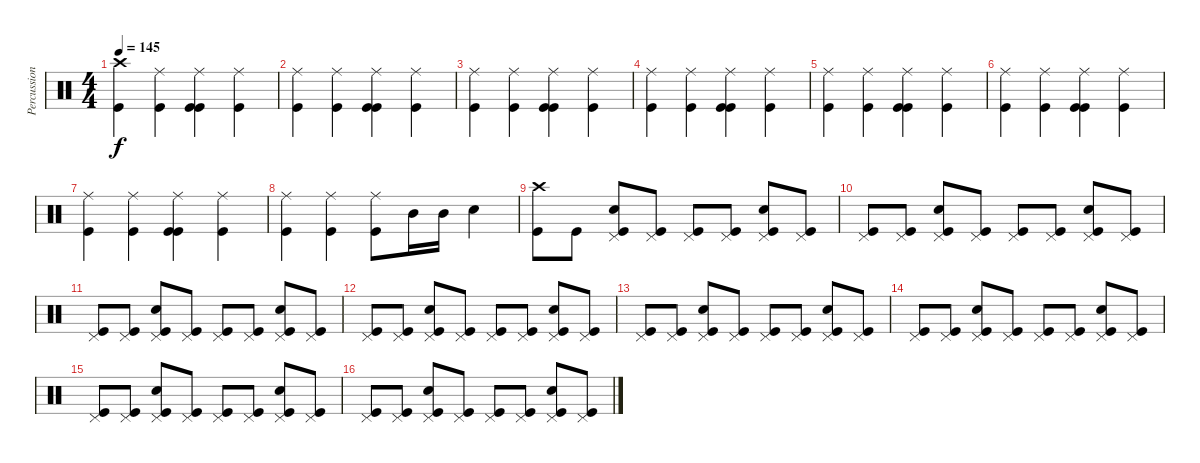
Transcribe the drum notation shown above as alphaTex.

\track ("Percussion" "Percussion") {instrument percussion}
\staff {score}
\articulation defaults
\ts (4 4)
\tempo 145
\clef neutral
\ks c
("Crash high (hit)" "Kick (hit)").4{dy f} ("Ride (middle)" "Kick (hit)").4 ("Ride (middle)" "Kick (hit)" "Kick (hit)").4 ("Ride (middle)" "Kick (hit)").4 |
("Ride (middle)" "Kick (hit)").4 ("Ride (middle)" "Kick (hit)").4 ("Ride (middle)" "Kick (hit)" "Kick (hit)").4 ("Ride (middle)" "Kick (hit)").4 |
("Ride (middle)" "Kick (hit)").4 ("Ride (middle)" "Kick (hit)").4 ("Ride (middle)" "Kick (hit)" "Kick (hit)").4 ("Ride (middle)" "Kick (hit)").4 |
("Ride (middle)" "Kick (hit)").4 ("Ride (middle)" "Kick (hit)").4 ("Ride (middle)" "Kick (hit)" "Kick (hit)").4 ("Ride (middle)" "Kick (hit)").4 |
("Ride (middle)" "Kick (hit)").4 ("Ride (middle)" "Kick (hit)").4 ("Ride (middle)" "Kick (hit)" "Kick (hit)").4 ("Ride (middle)" "Kick (hit)").4 |
("Ride (middle)" "Kick (hit)").4 ("Ride (middle)" "Kick (hit)").4 ("Ride (middle)" "Kick (hit)" "Kick (hit)").4 ("Ride (middle)" "Kick (hit)").4 |
("Ride (middle)" "Kick (hit)").4 ("Ride (middle)" "Kick (hit)").4 ("Ride (middle)" "Kick (hit)" "Kick (hit)").4 ("Ride (middle)" "Kick (hit)").4 |
("Ride (middle)" "Kick (hit)").4 ("Ride (middle)" "Kick (hit)").4 ("Ride (middle)" "Kick (hit)").8 "Mid Tom (hit)".16 "Mid Tom (hit)".16 "Snare (hit) 2".4 |
("Crash high (hit)" "Kick (hit)").8 "Kick (hit)".8 ("Pedal Hi-Hat (hit)" "Snare (hit) 2" "Kick (hit)").8 ("Pedal Hi-Hat (hit)" "Kick (hit)").8 ("Pedal Hi-Hat (hit)" "Kick (hit)").8 ("Pedal Hi-Hat (hit)" "Kick (hit)").8 ("Pedal Hi-Hat (hit)" "Snare (hit) 2" "Kick (hit)").8 ("Pedal Hi-Hat (hit)" "Kick (hit)").8 |
("Pedal Hi-Hat (hit)" "Kick (hit)").8 ("Pedal Hi-Hat (hit)" "Kick (hit)").8 ("Pedal Hi-Hat (hit)" "Snare (hit) 2" "Kick (hit)").8 ("Pedal Hi-Hat (hit)" "Kick (hit)").8 ("Pedal Hi-Hat (hit)" "Kick (hit)").8 ("Pedal Hi-Hat (hit)" "Kick (hit)").8 ("Pedal Hi-Hat (hit)" "Snare (hit) 2" "Kick (hit)").8 ("Pedal Hi-Hat (hit)" "Kick (hit)").8 |
("Pedal Hi-Hat (hit)" "Kick (hit)").8 ("Pedal Hi-Hat (hit)" "Kick (hit)").8 ("Pedal Hi-Hat (hit)" "Snare (hit) 2" "Kick (hit)").8 ("Pedal Hi-Hat (hit)" "Kick (hit)").8 ("Pedal Hi-Hat (hit)" "Kick (hit)").8 ("Pedal Hi-Hat (hit)" "Kick (hit)").8 ("Pedal Hi-Hat (hit)" "Snare (hit) 2" "Kick (hit)").8 ("Pedal Hi-Hat (hit)" "Kick (hit)").8 |
("Pedal Hi-Hat (hit)" "Kick (hit)").8 ("Pedal Hi-Hat (hit)" "Kick (hit)").8 ("Pedal Hi-Hat (hit)" "Snare (hit) 2" "Kick (hit)").8 ("Pedal Hi-Hat (hit)" "Kick (hit)").8 ("Pedal Hi-Hat (hit)" "Kick (hit)").8 ("Pedal Hi-Hat (hit)" "Kick (hit)").8 ("Pedal Hi-Hat (hit)" "Snare (hit) 2" "Kick (hit)").8 ("Pedal Hi-Hat (hit)" "Kick (hit)").8 |
("Pedal Hi-Hat (hit)" "Kick (hit)").8 ("Pedal Hi-Hat (hit)" "Kick (hit)").8 ("Pedal Hi-Hat (hit)" "Snare (hit) 2" "Kick (hit)").8 ("Pedal Hi-Hat (hit)" "Kick (hit)").8 ("Pedal Hi-Hat (hit)" "Kick (hit)").8 ("Pedal Hi-Hat (hit)" "Kick (hit)").8 ("Pedal Hi-Hat (hit)" "Snare (hit) 2" "Kick (hit)").8 ("Pedal Hi-Hat (hit)" "Kick (hit)").8 |
("Pedal Hi-Hat (hit)" "Kick (hit)").8 ("Pedal Hi-Hat (hit)" "Kick (hit)").8 ("Pedal Hi-Hat (hit)" "Snare (hit) 2" "Kick (hit)").8 ("Pedal Hi-Hat (hit)" "Kick (hit)").8 ("Pedal Hi-Hat (hit)" "Kick (hit)").8 ("Pedal Hi-Hat (hit)" "Kick (hit)").8 ("Pedal Hi-Hat (hit)" "Snare (hit) 2" "Kick (hit)").8 ("Pedal Hi-Hat (hit)" "Kick (hit)").8 |
("Pedal Hi-Hat (hit)" "Kick (hit)").8 ("Pedal Hi-Hat (hit)" "Kick (hit)").8 ("Pedal Hi-Hat (hit)" "Snare (hit) 2" "Kick (hit)").8 ("Pedal Hi-Hat (hit)" "Kick (hit)").8 ("Pedal Hi-Hat (hit)" "Kick (hit)").8 ("Pedal Hi-Hat (hit)" "Kick (hit)").8 ("Pedal Hi-Hat (hit)" "Snare (hit) 2" "Kick (hit)").8 ("Pedal Hi-Hat (hit)" "Kick (hit)").8 |
("Pedal Hi-Hat (hit)" "Kick (hit)").8 ("Pedal Hi-Hat (hit)" "Kick (hit)").8 ("Pedal Hi-Hat (hit)" "Snare (hit) 2" "Kick (hit)").8 ("Pedal Hi-Hat (hit)" "Kick (hit)").8 ("Pedal Hi-Hat (hit)" "Kick (hit)").8 ("Pedal Hi-Hat (hit)" "Kick (hit)").8 ("Pedal Hi-Hat (hit)" "Snare (hit) 2" "Kick (hit)").8 ("Pedal Hi-Hat (hit)" "Kick (hit)").8
